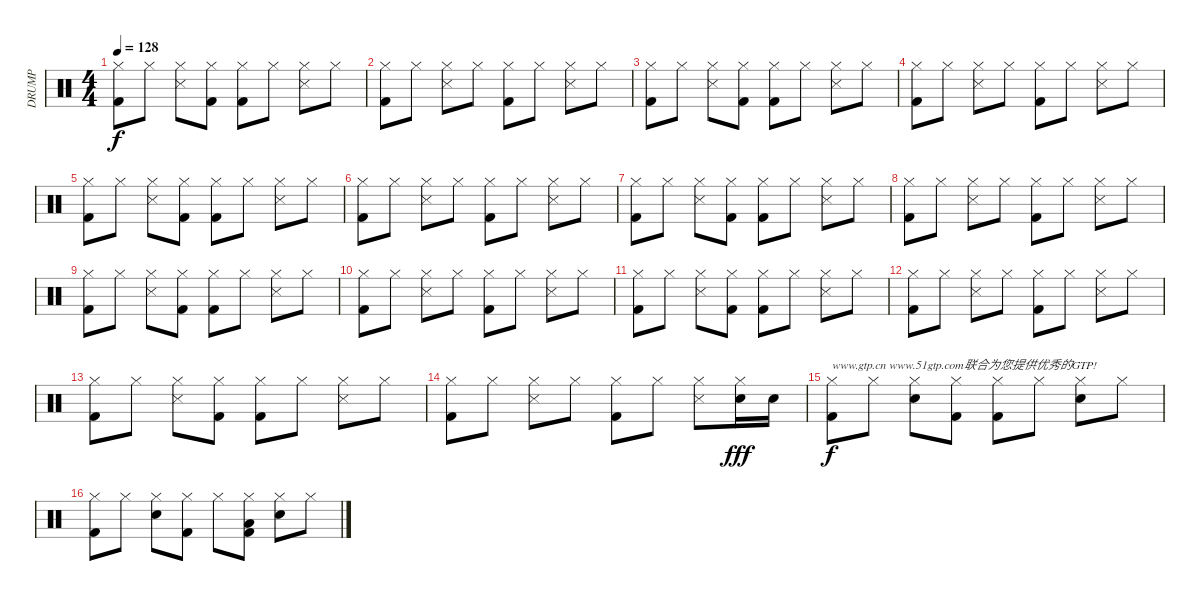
\track ("DRUMP" "DRUMP") {instrument percussion}
\staff {score}
\articulation defaults
\ts (4 4)
\tempo 128
\clef neutral
\ks c
("Hi-Hat (closed)" "Kick (hit) 2").8{dy f} "Hi-Hat (closed)".8 ("Hi-Hat (closed)" "Snare (side stick) 3").8 ("Hi-Hat (closed)" "Kick (hit) 2").8 ("Hi-Hat (closed)" "Kick (hit) 2").8 "Hi-Hat (closed)".8 ("Hi-Hat (closed)" "Snare (side stick) 3").8 "Hi-Hat (closed)".8 |
("Hi-Hat (closed)" "Kick (hit) 2").8 "Hi-Hat (closed)".8 ("Hi-Hat (closed)" "Snare (side stick) 3").8 "Hi-Hat (closed)".8 ("Hi-Hat (closed)" "Kick (hit) 2").8 "Hi-Hat (closed)".8 ("Hi-Hat (closed)" "Snare (side stick) 3").8 "Hi-Hat (closed)".8 |
("Hi-Hat (closed)" "Kick (hit) 2").8 "Hi-Hat (closed)".8 ("Hi-Hat (closed)" "Snare (side stick) 3").8 ("Hi-Hat (closed)" "Kick (hit) 2").8 ("Hi-Hat (closed)" "Kick (hit) 2").8 "Hi-Hat (closed)".8 ("Hi-Hat (closed)" "Snare (side stick) 3").8 "Hi-Hat (closed)".8 |
("Hi-Hat (closed)" "Kick (hit) 2").8 "Hi-Hat (closed)".8 ("Hi-Hat (closed)" "Snare (side stick) 3").8 "Hi-Hat (closed)".8 ("Hi-Hat (closed)" "Kick (hit) 2").8 "Hi-Hat (closed)".8 ("Hi-Hat (closed)" "Snare (side stick) 3").8 "Hi-Hat (closed)".8 |
("Hi-Hat (closed)" "Kick (hit) 2").8 "Hi-Hat (closed)".8 ("Hi-Hat (closed)" "Snare (side stick) 3").8 ("Hi-Hat (closed)" "Kick (hit) 2").8 ("Hi-Hat (closed)" "Kick (hit) 2").8 "Hi-Hat (closed)".8 ("Hi-Hat (closed)" "Snare (side stick) 3").8 "Hi-Hat (closed)".8 |
("Hi-Hat (closed)" "Kick (hit) 2").8 "Hi-Hat (closed)".8 ("Hi-Hat (closed)" "Snare (side stick) 3").8 "Hi-Hat (closed)".8 ("Hi-Hat (closed)" "Kick (hit) 2").8 "Hi-Hat (closed)".8 ("Hi-Hat (closed)" "Snare (side stick) 3").8 "Hi-Hat (closed)".8 |
("Hi-Hat (closed)" "Kick (hit) 2").8 "Hi-Hat (closed)".8 ("Hi-Hat (closed)" "Snare (side stick) 3").8 ("Hi-Hat (closed)" "Kick (hit) 2").8 ("Hi-Hat (closed)" "Kick (hit) 2").8 "Hi-Hat (closed)".8 ("Hi-Hat (closed)" "Snare (side stick) 3").8 "Hi-Hat (closed)".8 |
("Hi-Hat (closed)" "Kick (hit) 2").8 "Hi-Hat (closed)".8 ("Hi-Hat (closed)" "Snare (side stick) 3").8 "Hi-Hat (closed)".8 ("Hi-Hat (closed)" "Kick (hit) 2").8 "Hi-Hat (closed)".8 ("Hi-Hat (closed)" "Snare (side stick) 3").8 "Hi-Hat (closed)".8 |
("Hi-Hat (closed)" "Kick (hit) 2").8 "Hi-Hat (closed)".8 ("Hi-Hat (closed)" "Snare (side stick) 3").8 ("Hi-Hat (closed)" "Kick (hit) 2").8 ("Hi-Hat (closed)" "Kick (hit) 2").8 "Hi-Hat (closed)".8 ("Hi-Hat (closed)" "Snare (side stick) 3").8 "Hi-Hat (closed)".8 |
("Hi-Hat (closed)" "Kick (hit) 2").8 "Hi-Hat (closed)".8 ("Hi-Hat (closed)" "Snare (side stick) 3").8 "Hi-Hat (closed)".8 ("Hi-Hat (closed)" "Kick (hit) 2").8 "Hi-Hat (closed)".8 ("Hi-Hat (closed)" "Snare (side stick) 3").8 "Hi-Hat (closed)".8 |
("Hi-Hat (closed)" "Kick (hit) 2").8 "Hi-Hat (closed)".8 ("Hi-Hat (closed)" "Snare (side stick) 3").8 ("Hi-Hat (closed)" "Kick (hit) 2").8 ("Hi-Hat (closed)" "Kick (hit) 2").8 "Hi-Hat (closed)".8 ("Hi-Hat (closed)" "Snare (side stick) 3").8 "Hi-Hat (closed)".8 |
("Hi-Hat (closed)" "Kick (hit) 2").8 "Hi-Hat (closed)".8 ("Hi-Hat (closed)" "Snare (side stick) 3").8 "Hi-Hat (closed)".8 ("Hi-Hat (closed)" "Kick (hit) 2").8 "Hi-Hat (closed)".8 ("Hi-Hat (closed)" "Snare (side stick) 3").8 "Hi-Hat (closed)".8 |
("Hi-Hat (closed)" "Kick (hit) 2").8 "Hi-Hat (closed)".8 ("Hi-Hat (closed)" "Snare (side stick) 3").8 ("Hi-Hat (closed)" "Kick (hit) 2").8 ("Hi-Hat (closed)" "Kick (hit) 2").8 "Hi-Hat (closed)".8 ("Hi-Hat (closed)" "Snare (side stick) 3").8 "Hi-Hat (closed)".8 |
("Hi-Hat (closed)" "Kick (hit) 2").8 "Hi-Hat (closed)".8 ("Hi-Hat (closed)" "Snare (side stick) 3").8 "Hi-Hat (closed)".8 ("Hi-Hat (closed)" "Kick (hit) 2").8 "Hi-Hat (closed)".8 ("Hi-Hat (closed)" "Snare (side stick) 3").8 ("Hi-Hat (closed)" "Snare (hit) 2").16{dy fff} "Snare (hit) 2".16 |
("Hi-Hat (closed)" "Kick (hit) 2").8{txt "www.gtp.cn www.51gtp.com联合为您提供优秀的GTP!" dy f} "Hi-Hat (closed)".8 ("Hi-Hat (closed)" "Snare (hit) 2").8 ("Hi-Hat (closed)" "Kick (hit) 2").8 ("Hi-Hat (closed)" "Kick (hit) 2").8 "Hi-Hat (closed)".8 ("Hi-Hat (closed)" "Snare (hit) 2").8 "Hi-Hat (closed)".8 |
("Hi-Hat (closed)" "Kick (hit) 2").8 "Hi-Hat (closed)".8 ("Hi-Hat (closed)" "Snare (hit) 2").8 ("Hi-Hat (closed)" "Kick (hit) 2").8 "Hi-Hat (closed)".8 ("Hi-Hat (closed)" "Low Floor Tom (hit)" "Kick (hit) 2").8 ("Hi-Hat (closed)" "Snare (hit) 2").8 "Hi-Hat (closed)".8
